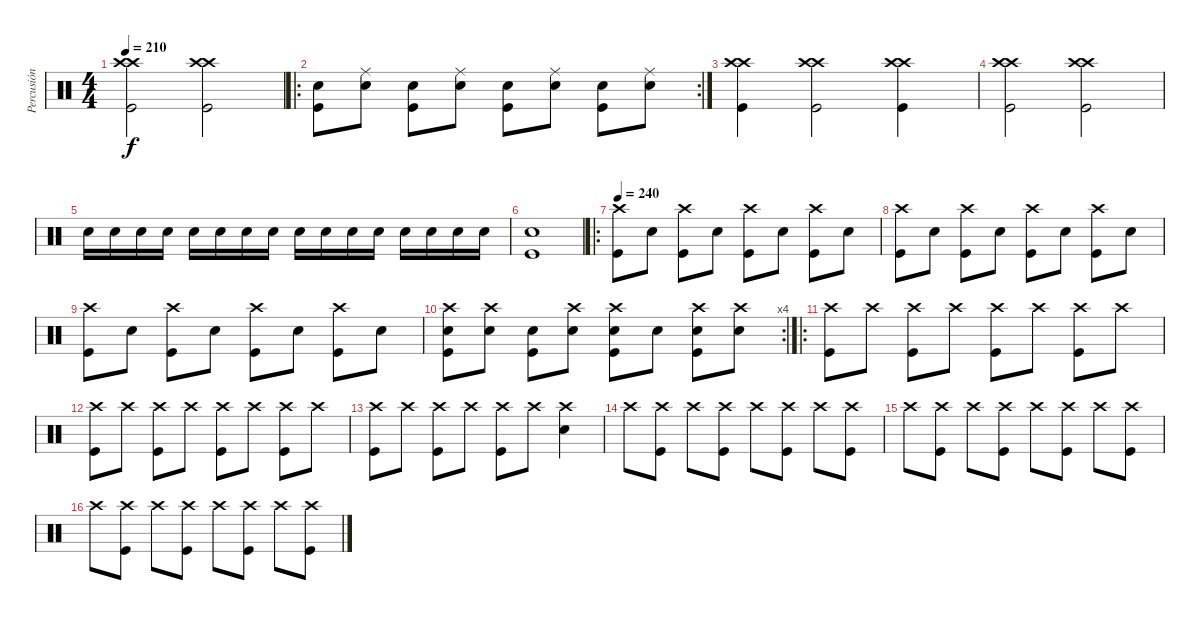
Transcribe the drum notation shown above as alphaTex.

\track ("Percusión" "Percusión") {instrument percussion}
\staff {score}
\articulation defaults
\ts (4 4)
\tempo 210
\clef neutral
\ks c
("Crash high (hit)" "Crash high (hit)" "Kick (hit)").2{dy f} ("Crash high (hit)" "Crash high (hit)" "Kick (hit)").2 |
\ro
\rc 2
("Electric Snare (hit)" "Kick (hit)").8 ("Ride (middle)" "Electric Snare (hit)").8 ("Electric Snare (hit)" "Kick (hit)").8 ("Ride (middle)" "Electric Snare (hit)").8 ("Electric Snare (hit)" "Kick (hit)").8 ("Ride (middle)" "Electric Snare (hit)").8 ("Electric Snare (hit)" "Kick (hit)").8 ("Ride (middle)" "Electric Snare (hit)").8 |
("Crash high (hit)" "Crash high (hit)" "Kick (hit)").4 ("Crash high (hit)" "Crash high (hit)" "Kick (hit)").2 ("Crash high (hit)" "Crash high (hit)" "Kick (hit)").4 |
("Crash high (hit)" "Crash high (hit)" "Kick (hit)").2 ("Crash high (hit)" "Crash high (hit)" "Kick (hit)").2 |
"Electric Snare (hit)".16 "Electric Snare (hit)".16 "Electric Snare (hit)".16 "Electric Snare (hit)".16 "Electric Snare (hit)".16 "Electric Snare (hit)".16 "Electric Snare (hit)".16 "Electric Snare (hit)".16 "Electric Snare (hit)".16 "Electric Snare (hit)".16 "Electric Snare (hit)".16 "Electric Snare (hit)".16 "Electric Snare (hit)".16 "Electric Snare (hit)".16 "Electric Snare (hit)".16 "Electric Snare (hit)".16 |
("Electric Snare (hit)" "Kick (hit)").1 |
\ro
\tempo 240
("Crash high (hit)" "Kick (hit)").8 "Electric Snare (hit)".8 ("Crash high (hit)" "Kick (hit)").8 "Electric Snare (hit)".8 ("Crash high (hit)" "Kick (hit)").8 "Electric Snare (hit)".8 ("Crash high (hit)" "Kick (hit)").8 "Electric Snare (hit)".8 |
("Crash high (hit)" "Kick (hit)").8 "Electric Snare (hit)".8 ("Crash high (hit)" "Kick (hit)").8 "Electric Snare (hit)".8 ("Crash high (hit)" "Kick (hit)").8 "Electric Snare (hit)".8 ("Crash high (hit)" "Kick (hit)").8 "Electric Snare (hit)".8 |
("Crash high (hit)" "Kick (hit)").8 "Electric Snare (hit)".8 ("Crash high (hit)" "Kick (hit)").8 "Electric Snare (hit)".8 ("Crash high (hit)" "Kick (hit)").8 "Electric Snare (hit)".8 ("Crash high (hit)" "Kick (hit)").8 "Electric Snare (hit)".8 |
\rc 4
("Crash high (hit)" "Electric Snare (hit)" "Kick (hit)").8 ("Crash high (hit)" "Electric Snare (hit)").8 ("Electric Snare (hit)" "Kick (hit)").8 ("Crash high (hit)" "Electric Snare (hit)").8 ("Crash high (hit)" "Electric Snare (hit)" "Kick (hit)").8 "Electric Snare (hit)".8 ("Crash high (hit)" "Electric Snare (hit)" "Kick (hit)").8 ("Crash high (hit)" "Electric Snare (hit)").8 |
\ro
("Crash high (hit)" "Kick (hit)").8 "Crash high (hit)".8 ("Crash high (hit)" "Kick (hit)").8 "Crash high (hit)".8 ("Crash high (hit)" "Kick (hit)").8 "Crash high (hit)".8 ("Crash high (hit)" "Kick (hit)").8 "Crash high (hit)".8 |
("Crash high (hit)" "Kick (hit)").8 "Crash high (hit)".8 ("Crash high (hit)" "Kick (hit)").8 "Crash high (hit)".8 ("Crash high (hit)" "Kick (hit)").8 "Crash high (hit)".8 ("Crash high (hit)" "Kick (hit)").8 "Crash high (hit)".8 |
("Crash high (hit)" "Kick (hit)").8 "Crash high (hit)".8 ("Crash high (hit)" "Kick (hit)").8 "Crash high (hit)".8 ("Crash high (hit)" "Kick (hit)").8 "Crash high (hit)".8 ("Crash high (hit)" "Snare (hit) 2").4 |
"Crash high (hit)".8 ("Crash high (hit)" "Kick (hit)").8 "Crash high (hit)".8 ("Crash high (hit)" "Kick (hit)").8 "Crash high (hit)".8 ("Crash high (hit)" "Kick (hit)").8 "Crash high (hit)".8 ("Crash high (hit)" "Kick (hit)").8 |
"Crash high (hit)".8 ("Crash high (hit)" "Kick (hit)").8 "Crash high (hit)".8 ("Crash high (hit)" "Kick (hit)").8 "Crash high (hit)".8 ("Crash high (hit)" "Kick (hit)").8 "Crash high (hit)".8 ("Crash high (hit)" "Kick (hit)").8 |
"Crash high (hit)".8 ("Crash high (hit)" "Kick (hit)").8 "Crash high (hit)".8 ("Crash high (hit)" "Kick (hit)").8 "Crash high (hit)".8 ("Crash high (hit)" "Kick (hit)").8 "Crash high (hit)".8 ("Crash high (hit)" "Kick (hit)").8
